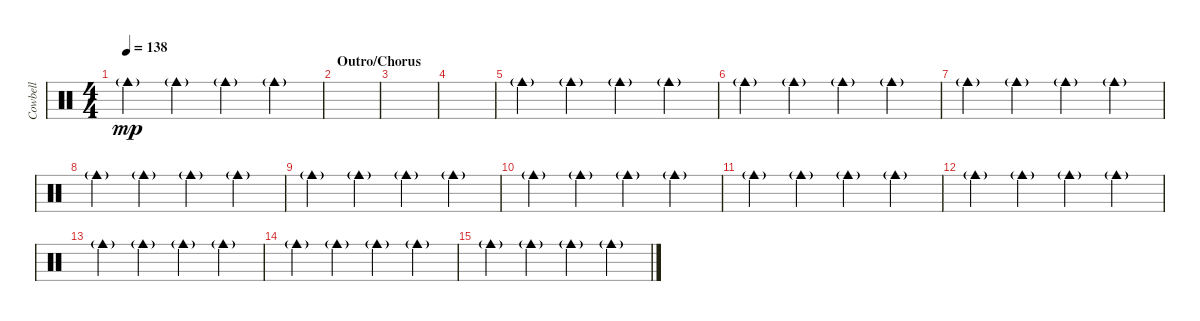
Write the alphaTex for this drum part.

\track ("Cowbell" "Cowbell") {instrument percussion}
\staff {score}
\articulation defaults
\ts (4 4)
\tempo 138
\clef neutral
\ks c "Cowbell medium (hit)"{g}.4{dy mp} "Cowbell medium (hit)"{g}.4 "Cowbell medium (hit)"{g}.4 "Cowbell medium (hit)"{g}.4
|
\section ("" "Outro/Chorus")
|
|
|
"Cowbell medium (hit)"{g}.4 "Cowbell medium (hit)"{g}.4 "Cowbell medium (hit)"{g}.4 "Cowbell medium (hit)"{g}.4 |
"Cowbell medium (hit)"{g}.4 "Cowbell medium (hit)"{g}.4 "Cowbell medium (hit)"{g}.4 "Cowbell medium (hit)"{g}.4 |
"Cowbell medium (hit)"{g}.4 "Cowbell medium (hit)"{g}.4 "Cowbell medium (hit)"{g}.4 "Cowbell medium (hit)"{g}.4 |
"Cowbell medium (hit)"{g}.4 "Cowbell medium (hit)"{g}.4 "Cowbell medium (hit)"{g}.4 "Cowbell medium (hit)"{g}.4 |
"Cowbell medium (hit)"{g}.4 "Cowbell medium (hit)"{g}.4 "Cowbell medium (hit)"{g}.4 "Cowbell medium (hit)"{g}.4 |
"Cowbell medium (hit)"{g}.4 "Cowbell medium (hit)"{g}.4 "Cowbell medium (hit)"{g}.4 "Cowbell medium (hit)"{g}.4 |
"Cowbell medium (hit)"{g}.4 "Cowbell medium (hit)"{g}.4 "Cowbell medium (hit)"{g}.4 "Cowbell medium (hit)"{g}.4 |
"Cowbell medium (hit)"{g}.4 "Cowbell medium (hit)"{g}.4 "Cowbell medium (hit)"{g}.4 "Cowbell medium (hit)"{g}.4 |
"Cowbell medium (hit)"{g}.4 "Cowbell medium (hit)"{g}.4 "Cowbell medium (hit)"{g}.4 "Cowbell medium (hit)"{g}.4 |
"Cowbell medium (hit)"{g}.4 "Cowbell medium (hit)"{g}.4 "Cowbell medium (hit)"{g}.4 "Cowbell medium (hit)"{g}.4 |
"Cowbell medium (hit)"{g}.4 "Cowbell medium (hit)"{g}.4 "Cowbell medium (hit)"{g}.4 "Cowbell medium (hit)"{g}.4
